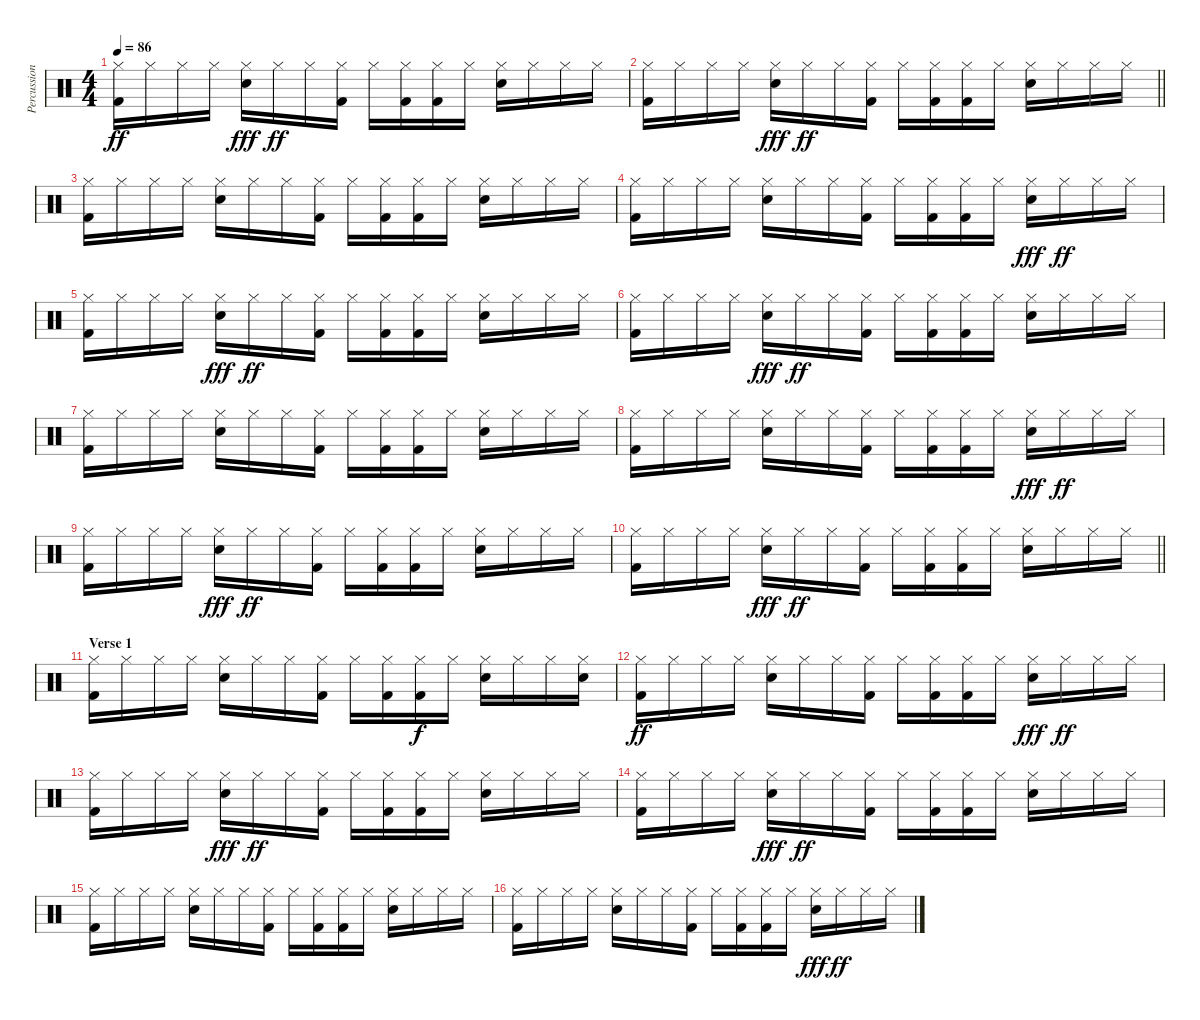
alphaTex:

\track ("Percussion" "Percussion") {instrument percussion}
\staff {score}
\articulation defaults
\ts (4 4)
\tempo 86
\clef neutral
\ks c
("Hi-Hat (closed)" "Kick (hit) 2").16{dy ff} "Hi-Hat (closed)".16 "Hi-Hat (closed)".16 "Hi-Hat (closed)".16 ("Snare (hit) 2" "Hi-Hat (closed)").16{dy fff} "Hi-Hat (closed)".16{dy ff} "Hi-Hat (closed)".16 ("Hi-Hat (closed)" "Kick (hit) 2").16 "Hi-Hat (closed)".16 ("Kick (hit) 2" "Hi-Hat (closed)").16 ("Kick (hit) 2" "Hi-Hat (closed)").16 "Hi-Hat (closed)".16 ("Hi-Hat (closed)" "Snare (hit) 2").16 "Hi-Hat (closed)".16 "Hi-Hat (closed)".16 "Hi-Hat (closed)".16 |
\barLineRight lightlight
("Hi-Hat (closed)" "Kick (hit) 2").16 "Hi-Hat (closed)".16 "Hi-Hat (closed)".16 "Hi-Hat (closed)".16 ("Snare (hit) 2" "Hi-Hat (closed)").16{dy fff} "Hi-Hat (closed)".16{dy ff} "Hi-Hat (closed)".16 ("Hi-Hat (closed)" "Kick (hit) 2").16 "Hi-Hat (closed)".16 ("Kick (hit) 2" "Hi-Hat (closed)").16 ("Kick (hit) 2" "Hi-Hat (closed)").16 "Hi-Hat (closed)".16 ("Hi-Hat (closed)" "Snare (hit) 2").16 "Hi-Hat (closed)".16 "Hi-Hat (closed)".16 "Hi-Hat (closed)".16 |
("Hi-Hat (closed)" "Kick (hit) 2").16 "Hi-Hat (closed)".16 "Hi-Hat (closed)".16 "Hi-Hat (closed)".16 ("Hi-Hat (closed)" "Snare (hit) 2").16 "Hi-Hat (closed)".16 "Hi-Hat (closed)".16 ("Hi-Hat (closed)" "Kick (hit) 2").16 "Hi-Hat (closed)".16 ("Hi-Hat (closed)" "Kick (hit) 2").16 ("Hi-Hat (closed)" "Kick (hit) 2").16 "Hi-Hat (closed)".16 ("Hi-Hat (closed)" "Snare (hit) 2").16 "Hi-Hat (closed)".16 "Hi-Hat (closed)".16 "Hi-Hat (closed)".16 |
("Hi-Hat (closed)" "Kick (hit) 2").16 "Hi-Hat (closed)".16 "Hi-Hat (closed)".16 "Hi-Hat (closed)".16 ("Hi-Hat (closed)" "Snare (hit) 2").16 "Hi-Hat (closed)".16 "Hi-Hat (closed)".16 ("Hi-Hat (closed)" "Kick (hit) 2").16 "Hi-Hat (closed)".16 ("Hi-Hat (closed)" "Kick (hit) 2").16 ("Hi-Hat (closed)" "Kick (hit) 2").16 "Hi-Hat (closed)".16 ("Hi-Hat (closed)" "Snare (hit) 2").16{dy fff} "Hi-Hat (closed)".16{dy ff} "Hi-Hat (closed)".16 "Hi-Hat (closed)".16 |
("Hi-Hat (closed)" "Kick (hit) 2").16 "Hi-Hat (closed)".16 "Hi-Hat (closed)".16 "Hi-Hat (closed)".16 ("Snare (hit) 2" "Hi-Hat (closed)").16{dy fff} "Hi-Hat (closed)".16{dy ff} "Hi-Hat (closed)".16 ("Hi-Hat (closed)" "Kick (hit) 2").16 "Hi-Hat (closed)".16 ("Kick (hit) 2" "Hi-Hat (closed)").16 ("Kick (hit) 2" "Hi-Hat (closed)").16 "Hi-Hat (closed)".16 ("Hi-Hat (closed)" "Snare (hit) 2").16 "Hi-Hat (closed)".16 "Hi-Hat (closed)".16 "Hi-Hat (closed)".16 |
("Hi-Hat (closed)" "Kick (hit) 2").16 "Hi-Hat (closed)".16 "Hi-Hat (closed)".16 "Hi-Hat (closed)".16 ("Snare (hit) 2" "Hi-Hat (closed)").16{dy fff} "Hi-Hat (closed)".16{dy ff} "Hi-Hat (closed)".16 ("Hi-Hat (closed)" "Kick (hit) 2").16 "Hi-Hat (closed)".16 ("Kick (hit) 2" "Hi-Hat (closed)").16 ("Kick (hit) 2" "Hi-Hat (closed)").16 "Hi-Hat (closed)".16 ("Hi-Hat (closed)" "Snare (hit) 2").16 "Hi-Hat (closed)".16 "Hi-Hat (closed)".16 "Hi-Hat (closed)".16 |
("Hi-Hat (closed)" "Kick (hit) 2").16 "Hi-Hat (closed)".16 "Hi-Hat (closed)".16 "Hi-Hat (closed)".16 ("Hi-Hat (closed)" "Snare (hit) 2").16 "Hi-Hat (closed)".16 "Hi-Hat (closed)".16 ("Hi-Hat (closed)" "Kick (hit) 2").16 "Hi-Hat (closed)".16 ("Hi-Hat (closed)" "Kick (hit) 2").16 ("Hi-Hat (closed)" "Kick (hit) 2").16 "Hi-Hat (closed)".16 ("Hi-Hat (closed)" "Snare (hit) 2").16 "Hi-Hat (closed)".16 "Hi-Hat (closed)".16 "Hi-Hat (closed)".16 |
("Hi-Hat (closed)" "Kick (hit) 2").16 "Hi-Hat (closed)".16 "Hi-Hat (closed)".16 "Hi-Hat (closed)".16 ("Hi-Hat (closed)" "Snare (hit) 2").16 "Hi-Hat (closed)".16 "Hi-Hat (closed)".16 ("Hi-Hat (closed)" "Kick (hit) 2").16 "Hi-Hat (closed)".16 ("Hi-Hat (closed)" "Kick (hit) 2").16 ("Hi-Hat (closed)" "Kick (hit) 2").16 "Hi-Hat (closed)".16 ("Hi-Hat (closed)" "Snare (hit) 2").16{dy fff} "Hi-Hat (closed)".16{dy ff} "Hi-Hat (closed)".16 "Hi-Hat (closed)".16 |
("Hi-Hat (closed)" "Kick (hit) 2").16 "Hi-Hat (closed)".16 "Hi-Hat (closed)".16 "Hi-Hat (closed)".16 ("Snare (hit) 2" "Hi-Hat (closed)").16{dy fff} "Hi-Hat (closed)".16{dy ff} "Hi-Hat (closed)".16 ("Hi-Hat (closed)" "Kick (hit) 2").16 "Hi-Hat (closed)".16 ("Kick (hit) 2" "Hi-Hat (closed)").16 ("Kick (hit) 2" "Hi-Hat (closed)").16 "Hi-Hat (closed)".16 ("Hi-Hat (closed)" "Snare (hit) 2").16 "Hi-Hat (closed)".16 "Hi-Hat (closed)".16 "Hi-Hat (closed)".16 |
\section ("" "")
\barLineRight lightlight
("Hi-Hat (closed)" "Kick (hit) 2").16 "Hi-Hat (closed)".16 "Hi-Hat (closed)".16 "Hi-Hat (closed)".16 ("Snare (hit) 2" "Hi-Hat (closed)").16{dy fff} "Hi-Hat (closed)".16{dy ff} "Hi-Hat (closed)".16 ("Hi-Hat (closed)" "Kick (hit) 2").16 "Hi-Hat (closed)".16 ("Kick (hit) 2" "Hi-Hat (closed)").16 ("Kick (hit) 2" "Hi-Hat (closed)").16 "Hi-Hat (closed)".16 ("Hi-Hat (closed)" "Snare (hit) 2").16 "Hi-Hat (closed)".16 "Hi-Hat (closed)".16 "Hi-Hat (closed)".16 |
\section ("" "Verse 1")
("Hi-Hat (closed)" "Kick (hit) 2").16 "Hi-Hat (closed)".16 "Hi-Hat (closed)".16 "Hi-Hat (closed)".16 ("Hi-Hat (closed)" "Snare (hit) 2").16 "Hi-Hat (closed)".16 "Hi-Hat (closed)".16 ("Hi-Hat (closed)" "Kick (hit) 2").16 "Hi-Hat (closed)".16 ("Hi-Hat (closed)" "Kick (hit) 2").16 ("Hi-Hat (closed)" "Kick (hit) 2").16{dy f} "Hi-Hat (closed)".16 ("Hi-Hat (closed)" "Snare (hit) 2").16 "Hi-Hat (closed)".16 "Hi-Hat (closed)".16 ("Hi-Hat (closed)" "Snare (hit) 2").16 |
("Hi-Hat (closed)" "Kick (hit) 2").16{dy ff} "Hi-Hat (closed)".16 "Hi-Hat (closed)".16 "Hi-Hat (closed)".16 ("Hi-Hat (closed)" "Snare (hit) 2").16 "Hi-Hat (closed)".16 "Hi-Hat (closed)".16 ("Hi-Hat (closed)" "Kick (hit) 2").16 "Hi-Hat (closed)".16 ("Hi-Hat (closed)" "Kick (hit) 2").16 ("Hi-Hat (closed)" "Kick (hit) 2").16 "Hi-Hat (closed)".16 ("Hi-Hat (closed)" "Snare (hit) 2").16{dy fff} "Hi-Hat (closed)".16{dy ff} "Hi-Hat (closed)".16 "Hi-Hat (closed)".16 |
("Hi-Hat (closed)" "Kick (hit) 2").16 "Hi-Hat (closed)".16 "Hi-Hat (closed)".16 "Hi-Hat (closed)".16 ("Snare (hit) 2" "Hi-Hat (closed)").16{dy fff} "Hi-Hat (closed)".16{dy ff} "Hi-Hat (closed)".16 ("Hi-Hat (closed)" "Kick (hit) 2").16 "Hi-Hat (closed)".16 ("Kick (hit) 2" "Hi-Hat (closed)").16 ("Kick (hit) 2" "Hi-Hat (closed)").16 "Hi-Hat (closed)".16 ("Hi-Hat (closed)" "Snare (hit) 2").16 "Hi-Hat (closed)".16 "Hi-Hat (closed)".16 "Hi-Hat (closed)".16 |
("Hi-Hat (closed)" "Kick (hit) 2").16 "Hi-Hat (closed)".16 "Hi-Hat (closed)".16 "Hi-Hat (closed)".16 ("Snare (hit) 2" "Hi-Hat (closed)").16{dy fff} "Hi-Hat (closed)".16{dy ff} "Hi-Hat (closed)".16 ("Hi-Hat (closed)" "Kick (hit) 2").16 "Hi-Hat (closed)".16 ("Kick (hit) 2" "Hi-Hat (closed)").16 ("Kick (hit) 2" "Hi-Hat (closed)").16 "Hi-Hat (closed)".16 ("Hi-Hat (closed)" "Snare (hit) 2").16 "Hi-Hat (closed)".16 "Hi-Hat (closed)".16 "Hi-Hat (closed)".16 |
("Hi-Hat (closed)" "Kick (hit) 2").16 "Hi-Hat (closed)".16 "Hi-Hat (closed)".16 "Hi-Hat (closed)".16 ("Hi-Hat (closed)" "Snare (hit) 2").16 "Hi-Hat (closed)".16 "Hi-Hat (closed)".16 ("Hi-Hat (closed)" "Kick (hit) 2").16 "Hi-Hat (closed)".16 ("Hi-Hat (closed)" "Kick (hit) 2").16 ("Hi-Hat (closed)" "Kick (hit) 2").16 "Hi-Hat (closed)".16 ("Hi-Hat (closed)" "Snare (hit) 2").16 "Hi-Hat (closed)".16 "Hi-Hat (closed)".16 "Hi-Hat (closed)".16 |
("Hi-Hat (closed)" "Kick (hit) 2").16 "Hi-Hat (closed)".16 "Hi-Hat (closed)".16 "Hi-Hat (closed)".16 ("Hi-Hat (closed)" "Snare (hit) 2").16 "Hi-Hat (closed)".16 "Hi-Hat (closed)".16 ("Hi-Hat (closed)" "Kick (hit) 2").16 "Hi-Hat (closed)".16 ("Hi-Hat (closed)" "Kick (hit) 2").16 ("Hi-Hat (closed)" "Kick (hit) 2").16 "Hi-Hat (closed)".16 ("Hi-Hat (closed)" "Snare (hit) 2").16{dy fff} "Hi-Hat (closed)".16{dy ff} "Hi-Hat (closed)".16 "Hi-Hat (closed)".16
